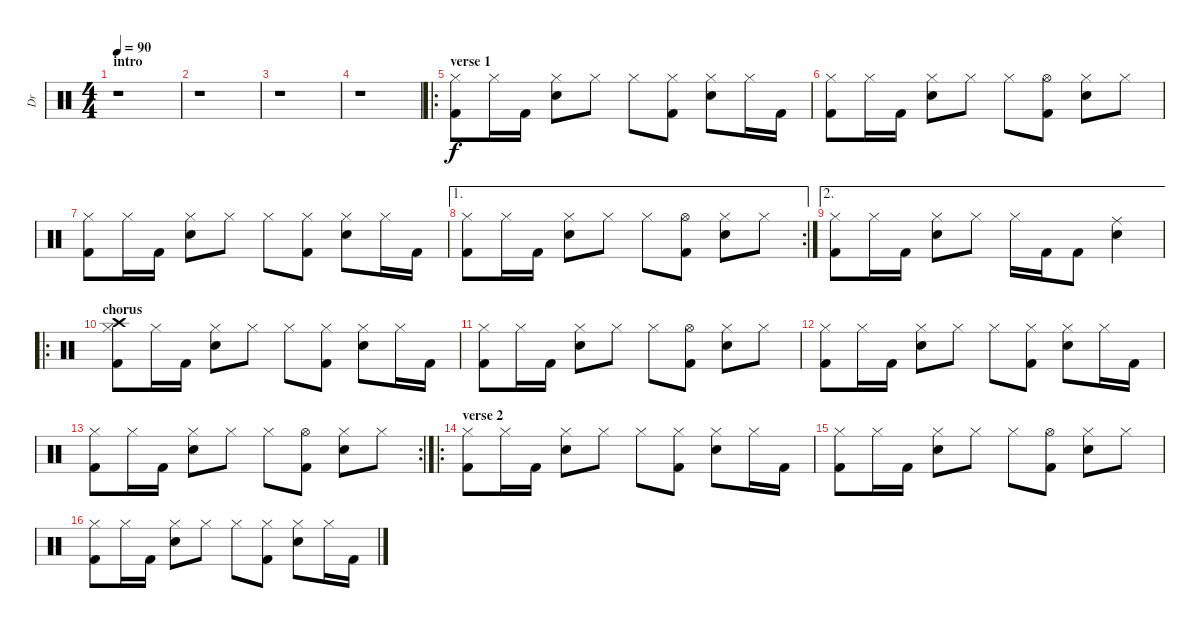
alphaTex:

\track ("Dr" "Dr") {instrument percussion}
\staff {score}
\articulation defaults
\ts (4 4)
\section ("" "intro")
\tempo 90
\clef neutral
\ks c
r.1{dy f} |
r.1 |
r.1 |
r.1 |
\ro
\section ("" "verse 1")
("Hi-Hat (closed)" "Kick (hit) 2").8 "Hi-Hat (closed)".16 "Kick (hit) 2".16 ("Hi-Hat (closed)" "Electric Snare (hit)").8 "Hi-Hat (closed)".8 "Hi-Hat (closed)".8 ("Hi-Hat (closed)" "Kick (hit) 2").8 ("Hi-Hat (closed)" "Electric Snare (hit)").8 "Hi-Hat (closed)".16 "Kick (hit) 2".16 |
("Hi-Hat (closed)" "Kick (hit) 2").8 "Hi-Hat (closed)".16 "Kick (hit) 2".16 ("Hi-Hat (closed)" "Electric Snare (hit)").8 "Hi-Hat (closed)".8 "Hi-Hat (closed)".8 ("Hi-Hat (open)" "Kick (hit) 2").8 ("Hi-Hat (closed)" "Electric Snare (hit)").8 "Hi-Hat (closed)".8 |
("Hi-Hat (closed)" "Kick (hit) 2").8 "Hi-Hat (closed)".16 "Kick (hit) 2".16 ("Hi-Hat (closed)" "Electric Snare (hit)").8 "Hi-Hat (closed)".8 "Hi-Hat (closed)".8 ("Hi-Hat (closed)" "Kick (hit) 2").8 ("Hi-Hat (closed)" "Electric Snare (hit)").8 "Hi-Hat (closed)".16 "Kick (hit) 2".16 |
\ae 1
\rc 2
("Hi-Hat (closed)" "Kick (hit) 2").8 "Hi-Hat (closed)".16 "Kick (hit) 2".16 ("Hi-Hat (closed)" "Electric Snare (hit)").8 "Hi-Hat (closed)".8 "Hi-Hat (closed)".8 ("Hi-Hat (open)" "Kick (hit) 2").8 ("Hi-Hat (closed)" "Electric Snare (hit)").8 "Hi-Hat (closed)".8 |
\ae 2
("Hi-Hat (closed)" "Kick (hit) 2").8 "Hi-Hat (closed)".16 "Kick (hit) 2".16 ("Hi-Hat (closed)" "Electric Snare (hit)").8 "Hi-Hat (closed)".8 "Hi-Hat (closed)".16 "Kick (hit) 2".16 "Kick (hit) 2".8 ("Ride (middle)" "Electric Snare (hit)").4 |
\ro
\section ("" "chorus")
("Crash high (hit)" "Hi-Hat (closed)" "Kick (hit) 2").8 "Hi-Hat (closed)".16 "Kick (hit) 2".16 ("Hi-Hat (closed)" "Electric Snare (hit)").8 "Hi-Hat (closed)".8 "Hi-Hat (closed)".8 ("Hi-Hat (closed)" "Kick (hit) 2").8 ("Hi-Hat (closed)" "Electric Snare (hit)").8 "Hi-Hat (closed)".16 "Kick (hit) 2".16 |
("Hi-Hat (closed)" "Kick (hit) 2").8 "Hi-Hat (closed)".16 "Kick (hit) 2".16 ("Hi-Hat (closed)" "Electric Snare (hit)").8 "Hi-Hat (closed)".8 "Hi-Hat (closed)".8 ("Hi-Hat (open)" "Kick (hit) 2").8 ("Hi-Hat (closed)" "Electric Snare (hit)").8 "Hi-Hat (closed)".8 |
("Hi-Hat (closed)" "Kick (hit) 2").8 "Hi-Hat (closed)".16 "Kick (hit) 2".16 ("Hi-Hat (closed)" "Electric Snare (hit)").8 "Hi-Hat (closed)".8 "Hi-Hat (closed)".8 ("Hi-Hat (closed)" "Kick (hit) 2").8 ("Hi-Hat (closed)" "Electric Snare (hit)").8 "Hi-Hat (closed)".16 "Kick (hit) 2".16 |
\rc 2
("Hi-Hat (closed)" "Kick (hit) 2").8 "Hi-Hat (closed)".16 "Kick (hit) 2".16 ("Hi-Hat (closed)" "Electric Snare (hit)").8 "Hi-Hat (closed)".8 "Hi-Hat (closed)".8 ("Hi-Hat (open)" "Kick (hit) 2").8 ("Hi-Hat (closed)" "Electric Snare (hit)").8 "Hi-Hat (closed)".8 |
\ro
\section ("" "verse 2")
("Hi-Hat (closed)" "Kick (hit) 2").8 "Hi-Hat (closed)".16 "Kick (hit) 2".16 ("Hi-Hat (closed)" "Electric Snare (hit)").8 "Hi-Hat (closed)".8 "Hi-Hat (closed)".8 ("Hi-Hat (closed)" "Kick (hit) 2").8 ("Hi-Hat (closed)" "Electric Snare (hit)").8 "Hi-Hat (closed)".16 "Kick (hit) 2".16 |
("Hi-Hat (closed)" "Kick (hit) 2").8 "Hi-Hat (closed)".16 "Kick (hit) 2".16 ("Hi-Hat (closed)" "Electric Snare (hit)").8 "Hi-Hat (closed)".8 "Hi-Hat (closed)".8 ("Hi-Hat (open)" "Kick (hit) 2").8 ("Hi-Hat (closed)" "Electric Snare (hit)").8 "Hi-Hat (closed)".8 |
("Hi-Hat (closed)" "Kick (hit) 2").8 "Hi-Hat (closed)".16 "Kick (hit) 2".16 ("Hi-Hat (closed)" "Electric Snare (hit)").8 "Hi-Hat (closed)".8 "Hi-Hat (closed)".8 ("Hi-Hat (closed)" "Kick (hit) 2").8 ("Hi-Hat (closed)" "Electric Snare (hit)").8 "Hi-Hat (closed)".16 "Kick (hit) 2".16
